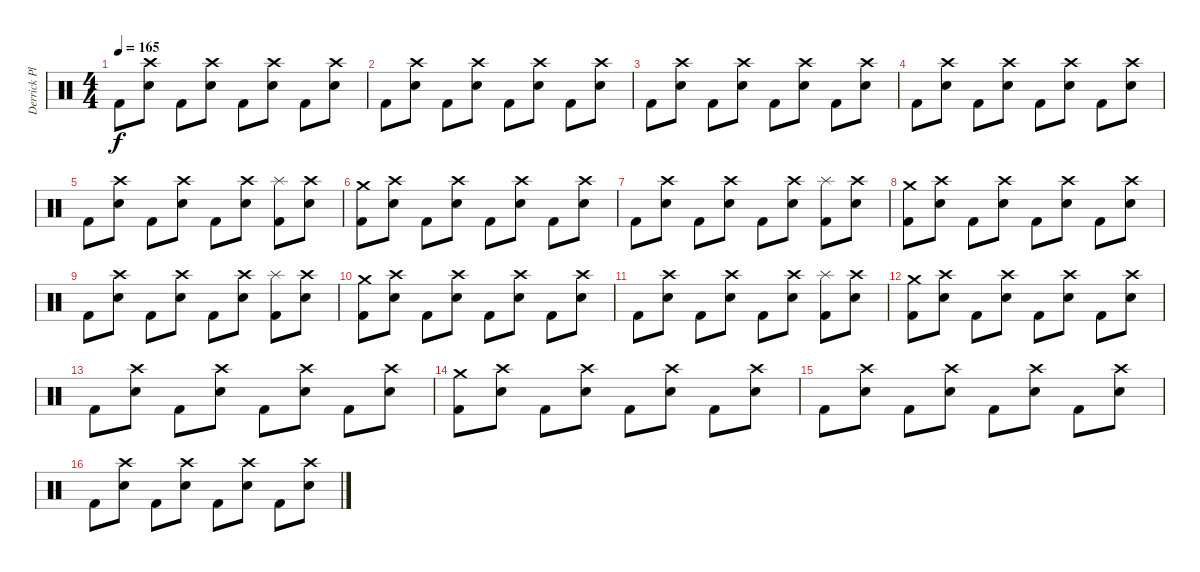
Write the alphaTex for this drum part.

\track ("Derrick Plourde (R.I.P.)" "Derrick Pl") {instrument percussion}
\staff {score}
\articulation defaults
\ts (4 4)
\tempo 165
\clef neutral
\ks c "Kick (hit) 2".8{dy f}
("Electric Snare (hit)" "Crash high (hit)").8 "Kick (hit) 2".8 ("Electric Snare (hit)" "Crash high (hit)").8 "Kick (hit) 2".8 ("Electric Snare (hit)" "Crash high (hit)").8 "Kick (hit) 2".8 ("Electric Snare (hit)" "Crash high (hit)").8 |
"Kick (hit) 2".8 ("Electric Snare (hit)" "Crash high (hit)").8 "Kick (hit) 2".8 ("Electric Snare (hit)" "Crash high (hit)").8 "Kick (hit) 2".8 ("Electric Snare (hit)" "Crash high (hit)").8 "Kick (hit) 2".8 ("Electric Snare (hit)" "Crash high (hit)").8 |
"Kick (hit) 2".8 ("Electric Snare (hit)" "Crash high (hit)").8 "Kick (hit) 2".8 ("Electric Snare (hit)" "Crash high (hit)").8 "Kick (hit) 2".8 ("Electric Snare (hit)" "Crash high (hit)").8 "Kick (hit) 2".8 ("Electric Snare (hit)" "Crash high (hit)").8 |
"Kick (hit) 2".8 ("Electric Snare (hit)" "Crash high (hit)").8 "Kick (hit) 2".8 ("Electric Snare (hit)" "Crash high (hit)").8 "Kick (hit) 2".8 ("Electric Snare (hit)" "Crash high (hit)").8 "Kick (hit) 2".8 ("Electric Snare (hit)" "Crash high (hit)").8 |
"Kick (hit) 2".8 ("Electric Snare (hit)" "Crash high (hit)").8 "Kick (hit) 2".8 ("Electric Snare (hit)" "Crash high (hit)").8 "Kick (hit) 2".8 ("Electric Snare (hit)" "Crash high (hit)").8 ("Kick (hit) 2" "Splash (hit)").8 ("Electric Snare (hit)" "Crash high (hit)").8 |
("Kick (hit) 2" "Crash medium (hit)").8 ("Electric Snare (hit)" "Crash high (hit)").8 "Kick (hit) 2".8 ("Electric Snare (hit)" "Crash high (hit)").8 "Kick (hit) 2".8 ("Electric Snare (hit)" "Crash high (hit)").8 "Kick (hit) 2".8 ("Electric Snare (hit)" "Crash high (hit)").8 |
"Kick (hit) 2".8 ("Electric Snare (hit)" "Crash high (hit)").8 "Kick (hit) 2".8 ("Electric Snare (hit)" "Crash high (hit)").8 "Kick (hit) 2".8 ("Electric Snare (hit)" "Crash high (hit)").8 ("Kick (hit) 2" "Splash (hit)").8 ("Electric Snare (hit)" "Crash high (hit)").8 |
("Kick (hit) 2" "Crash medium (hit)").8 ("Electric Snare (hit)" "Crash high (hit)").8 "Kick (hit) 2".8 ("Electric Snare (hit)" "Crash high (hit)").8 "Kick (hit) 2".8 ("Electric Snare (hit)" "Crash high (hit)").8 "Kick (hit) 2".8 ("Electric Snare (hit)" "Crash high (hit)").8 |
"Kick (hit) 2".8 ("Electric Snare (hit)" "Crash high (hit)").8 "Kick (hit) 2".8 ("Electric Snare (hit)" "Crash high (hit)").8 "Kick (hit) 2".8 ("Electric Snare (hit)" "Crash high (hit)").8 ("Kick (hit) 2" "Splash (hit)").8 ("Electric Snare (hit)" "Crash high (hit)").8 |
("Kick (hit) 2" "Crash medium (hit)").8 ("Electric Snare (hit)" "Crash high (hit)").8 "Kick (hit) 2".8 ("Electric Snare (hit)" "Crash high (hit)").8 "Kick (hit) 2".8 ("Electric Snare (hit)" "Crash high (hit)").8 "Kick (hit) 2".8 ("Electric Snare (hit)" "Crash high (hit)").8 |
"Kick (hit) 2".8 ("Electric Snare (hit)" "Crash high (hit)").8 "Kick (hit) 2".8 ("Electric Snare (hit)" "Crash high (hit)").8 "Kick (hit) 2".8 ("Electric Snare (hit)" "Crash high (hit)").8 ("Kick (hit) 2" "Splash (hit)").8 ("Electric Snare (hit)" "Crash high (hit)").8 |
("Kick (hit) 2" "Crash medium (hit)").8 ("Electric Snare (hit)" "Crash high (hit)").8 "Kick (hit) 2".8 ("Electric Snare (hit)" "Crash high (hit)").8 "Kick (hit) 2".8 ("Electric Snare (hit)" "Crash high (hit)").8 "Kick (hit) 2".8 ("Electric Snare (hit)" "Crash high (hit)").8 |
"Kick (hit) 2".8{volume 11} ("Electric Snare (hit)" "Crash high (hit)").8 "Kick (hit) 2".8 ("Electric Snare (hit)" "Crash high (hit)").8 "Kick (hit) 2".8{volume 10} ("Electric Snare (hit)" "Crash high (hit)").8 "Kick (hit) 2".8 ("Electric Snare (hit)" "Crash high (hit)").8 |
("Kick (hit) 2" "Crash medium (hit)").8{volume 9} ("Electric Snare (hit)" "Crash high (hit)").8 "Kick (hit) 2".8 ("Electric Snare (hit)" "Crash high (hit)").8 "Kick (hit) 2".8{volume 8} ("Electric Snare (hit)" "Crash high (hit)").8 "Kick (hit) 2".8 ("Electric Snare (hit)" "Crash high (hit)").8 |
"Kick (hit) 2".8{volume 7} ("Electric Snare (hit)" "Crash high (hit)").8 "Kick (hit) 2".8 ("Electric Snare (hit)" "Crash high (hit)").8 "Kick (hit) 2".8{volume 6} ("Electric Snare (hit)" "Crash high (hit)").8 "Kick (hit) 2".8 ("Electric Snare (hit)" "Crash high (hit)").8 |
"Kick (hit) 2".8{volume 5} ("Electric Snare (hit)" "Crash high (hit)").8 "Kick (hit) 2".8 ("Electric Snare (hit)" "Crash high (hit)").8 "Kick (hit) 2".8{volume 4} ("Electric Snare (hit)" "Crash high (hit)").8 "Kick (hit) 2".8 ("Electric Snare (hit)" "Crash high (hit)").8
